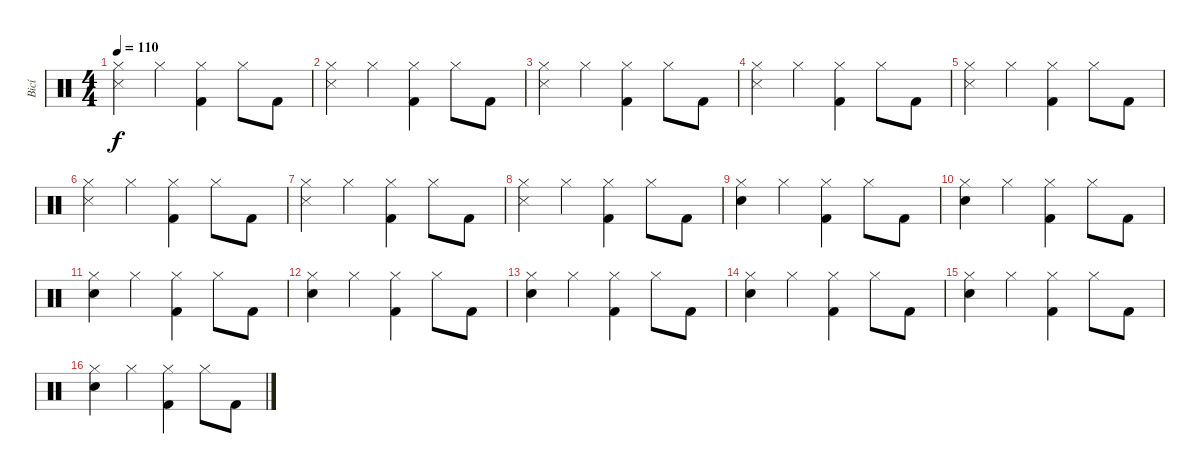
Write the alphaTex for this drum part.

\track ("Bicí" "Bicí") {instrument percussion}
\staff {score}
\articulation defaults
\ts (4 4)
\tempo 110
\clef neutral
\ks c
("Snare (side stick) 3" "Hi-Hat (closed)").4{dy f} "Hi-Hat (closed)".4 ("Kick (hit) 2" "Hi-Hat (closed)").4 "Hi-Hat (closed)".8 "Kick (hit) 2".8 |
("Snare (side stick) 3" "Hi-Hat (closed)").4 "Hi-Hat (closed)".4 ("Kick (hit) 2" "Hi-Hat (closed)").4 "Hi-Hat (closed)".8 "Kick (hit) 2".8 |
("Snare (side stick) 3" "Hi-Hat (closed)").4 "Hi-Hat (closed)".4 ("Kick (hit) 2" "Hi-Hat (closed)").4 "Hi-Hat (closed)".8 "Kick (hit) 2".8 |
("Snare (side stick) 3" "Hi-Hat (closed)").4 "Hi-Hat (closed)".4 ("Kick (hit) 2" "Hi-Hat (closed)").4 "Hi-Hat (closed)".8 "Kick (hit) 2".8 |
("Snare (side stick) 3" "Hi-Hat (closed)").4 "Hi-Hat (closed)".4 ("Kick (hit) 2" "Hi-Hat (closed)").4 "Hi-Hat (closed)".8 "Kick (hit) 2".8 |
("Snare (side stick) 3" "Hi-Hat (closed)").4 "Hi-Hat (closed)".4 ("Kick (hit) 2" "Hi-Hat (closed)").4 "Hi-Hat (closed)".8 "Kick (hit) 2".8 |
("Snare (side stick) 3" "Hi-Hat (closed)").4 "Hi-Hat (closed)".4 ("Kick (hit) 2" "Hi-Hat (closed)").4 "Hi-Hat (closed)".8 "Kick (hit) 2".8 |
("Snare (side stick) 3" "Hi-Hat (closed)").4 "Hi-Hat (closed)".4 ("Kick (hit) 2" "Hi-Hat (closed)").4 "Hi-Hat (closed)".8 "Kick (hit) 2".8 |
("Snare (hit) 2" "Hi-Hat (closed)").4 "Hi-Hat (closed)".4 ("Kick (hit) 2" "Hi-Hat (closed)").4 "Hi-Hat (closed)".8 "Kick (hit) 2".8 |
("Snare (hit) 2" "Hi-Hat (closed)").4 "Hi-Hat (closed)".4 ("Kick (hit) 2" "Hi-Hat (closed)").4 "Hi-Hat (closed)".8 "Kick (hit) 2".8 |
("Snare (hit) 2" "Hi-Hat (closed)").4 "Hi-Hat (closed)".4 ("Kick (hit) 2" "Hi-Hat (closed)").4 "Hi-Hat (closed)".8 "Kick (hit) 2".8 |
("Snare (hit) 2" "Hi-Hat (closed)").4 "Hi-Hat (closed)".4 ("Kick (hit) 2" "Hi-Hat (closed)").4 "Hi-Hat (closed)".8 "Kick (hit) 2".8 |
("Snare (hit) 2" "Hi-Hat (closed)").4 "Hi-Hat (closed)".4 ("Kick (hit) 2" "Hi-Hat (closed)").4 "Hi-Hat (closed)".8 "Kick (hit) 2".8 |
("Snare (hit) 2" "Hi-Hat (closed)").4 "Hi-Hat (closed)".4 ("Kick (hit) 2" "Hi-Hat (closed)").4 "Hi-Hat (closed)".8 "Kick (hit) 2".8 |
("Snare (hit) 2" "Hi-Hat (closed)").4 "Hi-Hat (closed)".4 ("Kick (hit) 2" "Hi-Hat (closed)").4 "Hi-Hat (closed)".8 "Kick (hit) 2".8 |
("Snare (hit) 2" "Hi-Hat (closed)").4 "Hi-Hat (closed)".4 ("Kick (hit) 2" "Hi-Hat (closed)").4 "Hi-Hat (closed)".8 "Kick (hit) 2".8
